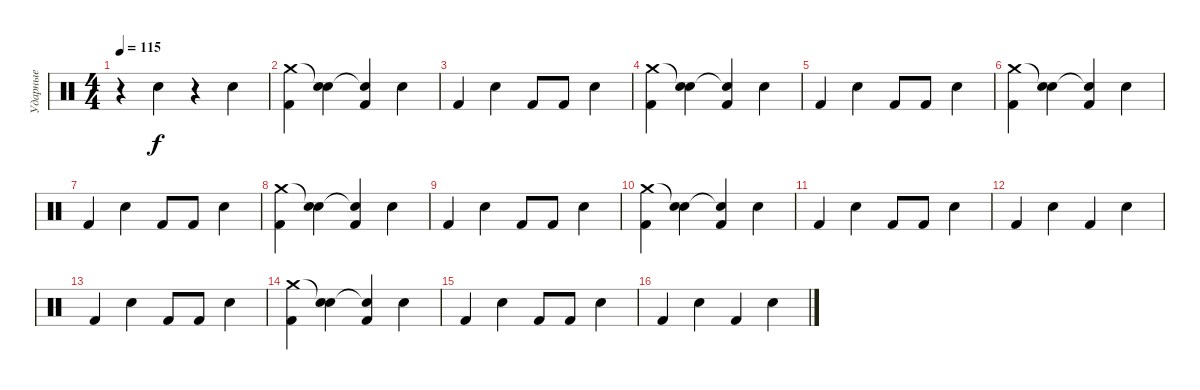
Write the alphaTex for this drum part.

\track ("Ударные" "Ударные") {instrument percussion}
\staff
\articulation defaults
\ts (4 4)
\tempo 115
\clef neutral
\ks c
r.4{dy f} "Electric Snare (hit)".4 r.4 "Electric Snare (hit)".4 |
("Crash medium (hit)" "Kick (hit) 2").4 ("Snare (hit)"{t} "Electric Snare (hit)").4 ("Snare (hit)"{t} "Kick (hit) 2").4 "Electric Snare (hit)".4 |
"Kick (hit) 2".4 "Electric Snare (hit)".4 "Kick (hit) 2".8 "Kick (hit) 2".8 "Electric Snare (hit)".4 |
("Crash medium (hit)" "Kick (hit) 2").4 ("Snare (hit)"{t} "Electric Snare (hit)").4 ("Snare (hit)"{t} "Kick (hit) 2").4 "Electric Snare (hit)".4 |
"Kick (hit) 2".4 "Electric Snare (hit)".4 "Kick (hit) 2".8 "Kick (hit) 2".8 "Electric Snare (hit)".4 |
("Crash medium (hit)" "Kick (hit) 2").4 ("Snare (hit)"{t} "Electric Snare (hit)").4 ("Snare (hit)"{t} "Kick (hit) 2").4 "Electric Snare (hit)".4 |
"Kick (hit) 2".4 "Electric Snare (hit)".4 "Kick (hit) 2".8 "Kick (hit) 2".8 "Electric Snare (hit)".4 |
("Crash medium (hit)" "Kick (hit) 2").4 ("Snare (hit)"{t} "Electric Snare (hit)").4 ("Snare (hit)"{t} "Kick (hit) 2").4 "Electric Snare (hit)".4 |
"Kick (hit) 2".4 "Electric Snare (hit)".4 "Kick (hit) 2".8 "Kick (hit) 2".8 "Electric Snare (hit)".4 |
("Crash medium (hit)" "Kick (hit) 2").4 ("Snare (hit)"{t} "Electric Snare (hit)").4 ("Snare (hit)"{t} "Kick (hit) 2").4 "Electric Snare (hit)".4 |
"Kick (hit) 2".4 "Electric Snare (hit)".4 "Kick (hit) 2".8 "Kick (hit) 2".8 "Electric Snare (hit)".4 |
"Kick (hit) 2".4 "Electric Snare (hit)".4 "Kick (hit) 2".4 "Electric Snare (hit)".4 |
"Kick (hit) 2".4 "Electric Snare (hit)".4 "Kick (hit) 2".8 "Kick (hit) 2".8 "Electric Snare (hit)".4 |
("Crash medium (hit)" "Kick (hit) 2").4 ("Snare (hit)"{t} "Electric Snare (hit)").4 ("Snare (hit)"{t} "Kick (hit) 2").4 "Electric Snare (hit)".4 |
"Kick (hit) 2".4 "Electric Snare (hit)".4 "Kick (hit) 2".8 "Kick (hit) 2".8 "Electric Snare (hit)".4 |
"Kick (hit) 2".4 "Electric Snare (hit)".4 "Kick (hit) 2".4 "Electric Snare (hit)".4
